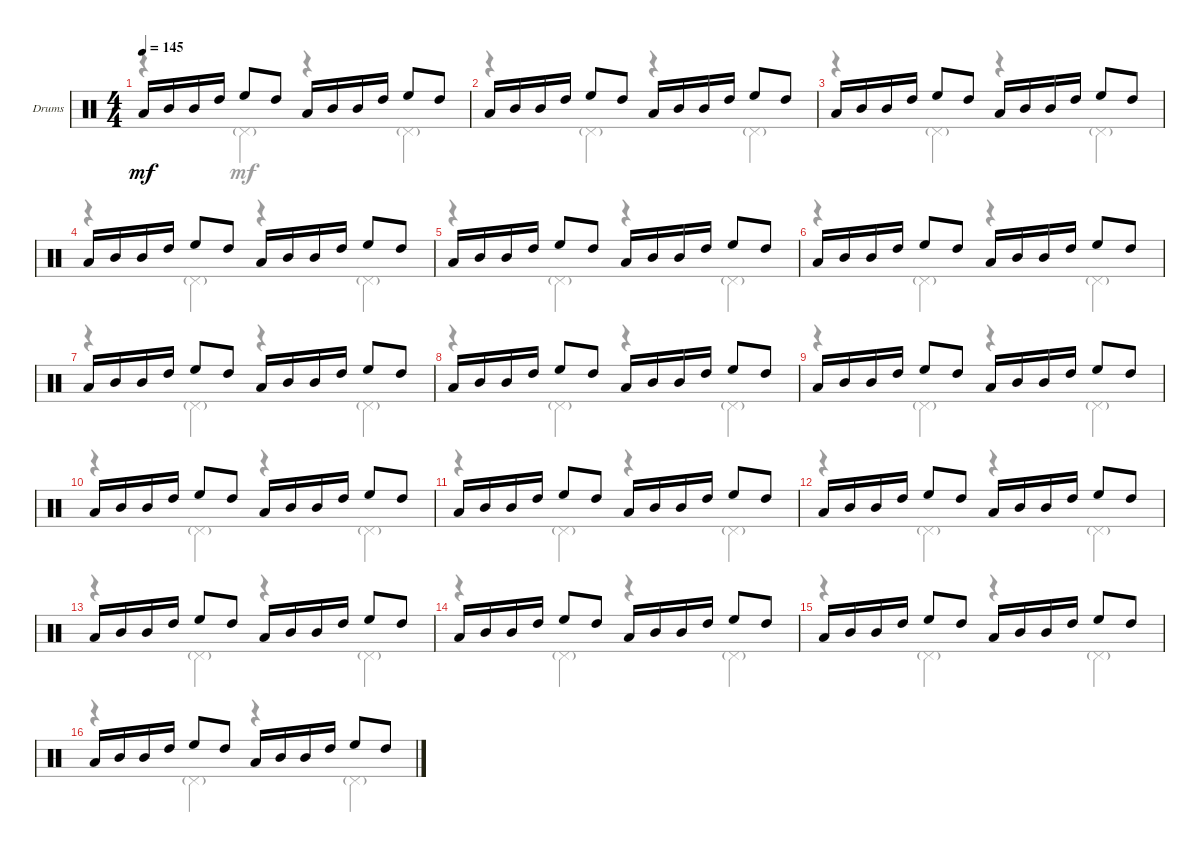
\defaultSystemsLayout 4
\bracketExtendMode groupsimilarinstruments
\firstSystemTrackNameOrientation horizontal
\otherSystemsTrackNameOrientation horizontal
\track ("Drumkit" "Drums") {instrument percussion}
\staff {score}
\articulation defaults
\voice
\ts (4 4)
\tempo 145
\clef neutral
\ks c "Low Tom (hit)".16{dy mf} "Mid Tom (hit)".16 "Mid Tom (hit)".16 "High Tom (hit)".16 "High Floor Tom (hit)".8 "High Tom (hit)".8 "Low Tom (hit)".16 "Mid Tom (hit)".16 "Mid Tom (hit)".16 "High Tom (hit)".16 "High Floor Tom (hit)".8 "High Tom (hit)".8
|
"Low Tom (hit)".16 "Mid Tom (hit)".16 "Mid Tom (hit)".16 "High Tom (hit)".16 "High Floor Tom (hit)".8 "High Tom (hit)".8 "Low Tom (hit)".16 "Mid Tom (hit)".16 "Mid Tom (hit)".16 "High Tom (hit)".16 "High Floor Tom (hit)".8 "High Tom (hit)".8 |
"Low Tom (hit)".16 "Mid Tom (hit)".16 "Mid Tom (hit)".16 "High Tom (hit)".16 "High Floor Tom (hit)".8 "High Tom (hit)".8 "Low Tom (hit)".16 "Mid Tom (hit)".16 "Mid Tom (hit)".16 "High Tom (hit)".16 "High Floor Tom (hit)".8 "High Tom (hit)".8 |
"Low Tom (hit)".16 "Mid Tom (hit)".16 "Mid Tom (hit)".16 "High Tom (hit)".16 "High Floor Tom (hit)".8 "High Tom (hit)".8 "Low Tom (hit)".16 "Mid Tom (hit)".16 "Mid Tom (hit)".16 "High Tom (hit)".16 "High Floor Tom (hit)".8 "High Tom (hit)".8 |
"Low Tom (hit)".16 "Mid Tom (hit)".16 "Mid Tom (hit)".16 "High Tom (hit)".16 "High Floor Tom (hit)".8 "High Tom (hit)".8 "Low Tom (hit)".16 "Mid Tom (hit)".16 "Mid Tom (hit)".16 "High Tom (hit)".16 "High Floor Tom (hit)".8 "High Tom (hit)".8 |
"Low Tom (hit)".16 "Mid Tom (hit)".16 "Mid Tom (hit)".16 "High Tom (hit)".16 "High Floor Tom (hit)".8 "High Tom (hit)".8 "Low Tom (hit)".16 "Mid Tom (hit)".16 "Mid Tom (hit)".16 "High Tom (hit)".16 "High Floor Tom (hit)".8 "High Tom (hit)".8 |
"Low Tom (hit)".16 "Mid Tom (hit)".16 "Mid Tom (hit)".16 "High Tom (hit)".16 "High Floor Tom (hit)".8 "High Tom (hit)".8 "Low Tom (hit)".16 "Mid Tom (hit)".16 "Mid Tom (hit)".16 "High Tom (hit)".16 "High Floor Tom (hit)".8 "High Tom (hit)".8 |
"Low Tom (hit)".16 "Mid Tom (hit)".16 "Mid Tom (hit)".16 "High Tom (hit)".16 "High Floor Tom (hit)".8 "High Tom (hit)".8 "Low Tom (hit)".16 "Mid Tom (hit)".16 "Mid Tom (hit)".16 "High Tom (hit)".16 "High Floor Tom (hit)".8 "High Tom (hit)".8 |
"Low Tom (hit)".16 "Mid Tom (hit)".16 "Mid Tom (hit)".16 "High Tom (hit)".16 "High Floor Tom (hit)".8 "High Tom (hit)".8 "Low Tom (hit)".16 "Mid Tom (hit)".16 "Mid Tom (hit)".16 "High Tom (hit)".16 "High Floor Tom (hit)".8 "High Tom (hit)".8 |
"Low Tom (hit)".16 "Mid Tom (hit)".16 "Mid Tom (hit)".16 "High Tom (hit)".16 "High Floor Tom (hit)".8 "High Tom (hit)".8 "Low Tom (hit)".16 "Mid Tom (hit)".16 "Mid Tom (hit)".16 "High Tom (hit)".16 "High Floor Tom (hit)".8 "High Tom (hit)".8 |
"Low Tom (hit)".16 "Mid Tom (hit)".16 "Mid Tom (hit)".16 "High Tom (hit)".16 "High Floor Tom (hit)".8 "High Tom (hit)".8 "Low Tom (hit)".16 "Mid Tom (hit)".16 "Mid Tom (hit)".16 "High Tom (hit)".16 "High Floor Tom (hit)".8 "High Tom (hit)".8 |
"Low Tom (hit)".16 "Mid Tom (hit)".16 "Mid Tom (hit)".16 "High Tom (hit)".16 "High Floor Tom (hit)".8 "High Tom (hit)".8 "Low Tom (hit)".16 "Mid Tom (hit)".16 "Mid Tom (hit)".16 "High Tom (hit)".16 "High Floor Tom (hit)".8 "High Tom (hit)".8 |
"Low Tom (hit)".16 "Mid Tom (hit)".16 "Mid Tom (hit)".16 "High Tom (hit)".16 "High Floor Tom (hit)".8 "High Tom (hit)".8 "Low Tom (hit)".16 "Mid Tom (hit)".16 "Mid Tom (hit)".16 "High Tom (hit)".16 "High Floor Tom (hit)".8 "High Tom (hit)".8 |
"Low Tom (hit)".16 "Mid Tom (hit)".16 "Mid Tom (hit)".16 "High Tom (hit)".16 "High Floor Tom (hit)".8 "High Tom (hit)".8 "Low Tom (hit)".16 "Mid Tom (hit)".16 "Mid Tom (hit)".16 "High Tom (hit)".16 "High Floor Tom (hit)".8 "High Tom (hit)".8 |
"Low Tom (hit)".16 "Mid Tom (hit)".16 "Mid Tom (hit)".16 "High Tom (hit)".16 "High Floor Tom (hit)".8 "High Tom (hit)".8 "Low Tom (hit)".16 "Mid Tom (hit)".16 "Mid Tom (hit)".16 "High Tom (hit)".16 "High Floor Tom (hit)".8 "High Tom (hit)".8 |
"Low Tom (hit)".16 "Mid Tom (hit)".16 "Mid Tom (hit)".16 "High Tom (hit)".16 "High Floor Tom (hit)".8 "High Tom (hit)".8 "Low Tom (hit)".16 "Mid Tom (hit)".16 "Mid Tom (hit)".16 "High Tom (hit)".16 "High Floor Tom (hit)".8 "High Tom (hit)".8
\voice
\clef neutral
\ottava regular
\simile none
\ks c
r.4{dy mf} "Pedal Hi-Hat (hit)"{g}.4 r.4 "Pedal Hi-Hat (hit)"{g}.4 |
r.4 "Pedal Hi-Hat (hit)"{g}.4 r.4 "Pedal Hi-Hat (hit)"{g}.4 |
r.4 "Pedal Hi-Hat (hit)"{g}.4 r.4 "Pedal Hi-Hat (hit)"{g}.4 |
r.4 "Pedal Hi-Hat (hit)"{g}.4 r.4 "Pedal Hi-Hat (hit)"{g}.4 |
r.4 "Pedal Hi-Hat (hit)"{g}.4 r.4 "Pedal Hi-Hat (hit)"{g}.4 |
r.4 "Pedal Hi-Hat (hit)"{g}.4 r.4 "Pedal Hi-Hat (hit)"{g}.4 |
r.4 "Pedal Hi-Hat (hit)"{g}.4 r.4 "Pedal Hi-Hat (hit)"{g}.4 |
r.4 "Pedal Hi-Hat (hit)"{g}.4 r.4 "Pedal Hi-Hat (hit)"{g}.4 |
r.4 "Pedal Hi-Hat (hit)"{g}.4 r.4 "Pedal Hi-Hat (hit)"{g}.4 |
r.4 "Pedal Hi-Hat (hit)"{g}.4 r.4 "Pedal Hi-Hat (hit)"{g}.4 |
r.4 "Pedal Hi-Hat (hit)"{g}.4 r.4 "Pedal Hi-Hat (hit)"{g}.4 |
r.4 "Pedal Hi-Hat (hit)"{g}.4 r.4 "Pedal Hi-Hat (hit)"{g}.4 |
r.4 "Pedal Hi-Hat (hit)"{g}.4 r.4 "Pedal Hi-Hat (hit)"{g}.4 |
r.4 "Pedal Hi-Hat (hit)"{g}.4 r.4 "Pedal Hi-Hat (hit)"{g}.4 |
r.4 "Pedal Hi-Hat (hit)"{g}.4 r.4 "Pedal Hi-Hat (hit)"{g}.4 |
r.4 "Pedal Hi-Hat (hit)"{g}.4 r.4 "Pedal Hi-Hat (hit)"{g}.4
